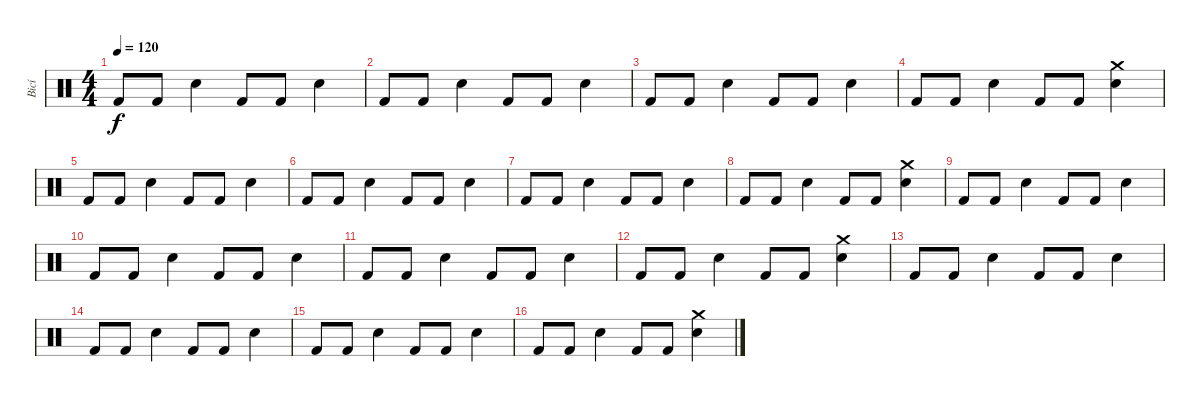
\track ("Bicí" "Bicí") {instrument percussion}
\staff {score}
\articulation defaults
\ts (4 4)
\tempo 120
\clef neutral
\ks c "Kick (hit) 2".8{dy f} "Kick (hit) 2".8 "Electric Snare (hit)".4 "Kick (hit) 2".8 "Kick (hit) 2".8 "Electric Snare (hit)".4
|
"Kick (hit) 2".8 "Kick (hit) 2".8 "Electric Snare (hit)".4 "Kick (hit) 2".8 "Kick (hit) 2".8 "Electric Snare (hit)".4 |
"Kick (hit) 2".8 "Kick (hit) 2".8 "Electric Snare (hit)".4 "Kick (hit) 2".8 "Kick (hit) 2".8 "Electric Snare (hit)".4 |
"Kick (hit) 2".8 "Kick (hit) 2".8 "Electric Snare (hit)".4 "Kick (hit) 2".8 "Kick (hit) 2".8 ("Electric Snare (hit)" "Crash medium (hit)").4 |
"Kick (hit) 2".8 "Kick (hit) 2".8 "Electric Snare (hit)".4 "Kick (hit) 2".8 "Kick (hit) 2".8 "Electric Snare (hit)".4 |
"Kick (hit) 2".8 "Kick (hit) 2".8 "Electric Snare (hit)".4 "Kick (hit) 2".8 "Kick (hit) 2".8 "Electric Snare (hit)".4 |
"Kick (hit) 2".8 "Kick (hit) 2".8 "Electric Snare (hit)".4 "Kick (hit) 2".8 "Kick (hit) 2".8 "Electric Snare (hit)".4 |
"Kick (hit) 2".8 "Kick (hit) 2".8 "Electric Snare (hit)".4 "Kick (hit) 2".8 "Kick (hit) 2".8 ("Electric Snare (hit)" "Crash medium (hit)").4 |
"Kick (hit) 2".8 "Kick (hit) 2".8 "Electric Snare (hit)".4 "Kick (hit) 2".8 "Kick (hit) 2".8 "Electric Snare (hit)".4 |
"Kick (hit) 2".8 "Kick (hit) 2".8 "Electric Snare (hit)".4 "Kick (hit) 2".8 "Kick (hit) 2".8 "Electric Snare (hit)".4 |
"Kick (hit) 2".8 "Kick (hit) 2".8 "Electric Snare (hit)".4 "Kick (hit) 2".8 "Kick (hit) 2".8 "Electric Snare (hit)".4 |
"Kick (hit) 2".8 "Kick (hit) 2".8 "Electric Snare (hit)".4 "Kick (hit) 2".8 "Kick (hit) 2".8 ("Electric Snare (hit)" "Crash medium (hit)").4 |
"Kick (hit) 2".8 "Kick (hit) 2".8 "Electric Snare (hit)".4 "Kick (hit) 2".8 "Kick (hit) 2".8 "Electric Snare (hit)".4 |
"Kick (hit) 2".8 "Kick (hit) 2".8 "Electric Snare (hit)".4 "Kick (hit) 2".8 "Kick (hit) 2".8 "Electric Snare (hit)".4 |
"Kick (hit) 2".8 "Kick (hit) 2".8 "Electric Snare (hit)".4 "Kick (hit) 2".8 "Kick (hit) 2".8 "Electric Snare (hit)".4 |
"Kick (hit) 2".8 "Kick (hit) 2".8 "Electric Snare (hit)".4 "Kick (hit) 2".8 "Kick (hit) 2".8 ("Electric Snare (hit)" "Crash medium (hit)").4
